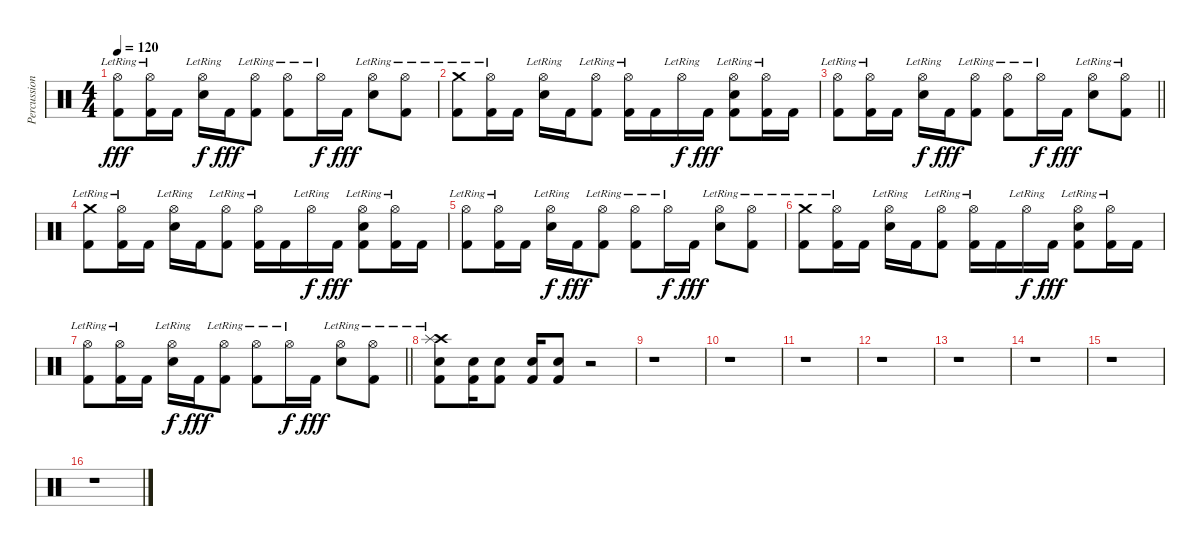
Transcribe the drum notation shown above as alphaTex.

\track ("Percussions" "Percussion") {instrument percussion}
\staff {score}
\articulation defaults
\ts (4 4)
\tempo 120
\clef neutral
\ks c
("Hi-Hat (open)"{lr} "Kick (hit) 2").8{dy fff} ("Hi-Hat (open)"{lr} "Kick (hit) 2").16 "Kick (hit) 2".16 ("Hi-Hat (open)"{lr} "Electric Snare (hit)").16{dy f} "Kick (hit) 2".16{dy fff} ("Hi-Hat (open)"{lr} "Kick (hit) 2").8 ("Hi-Hat (open)"{lr} "Kick (hit) 2").8 "Hi-Hat (open)"{lr}.16{dy f} "Kick (hit) 2".16{dy fff} ("Hi-Hat (open)"{lr} "Electric Snare (hit)").8 ("Hi-Hat (open)"{lr} "Kick (hit) 2").8 |
("Crash medium (hit)"{lr} "Kick (hit) 2").8 ("Hi-Hat (open)"{lr} "Kick (hit) 2").16 "Kick (hit) 2".16 ("Hi-Hat (open)"{lr} "Electric Snare (hit)").16 "Kick (hit) 2".16 ("Hi-Hat (open)"{lr} "Kick (hit) 2").8 ("Hi-Hat (open)"{lr} "Kick (hit) 2").16 "Kick (hit) 2".16 "Hi-Hat (open)"{lr}.16{dy f} "Kick (hit) 2".16{dy fff} ("Hi-Hat (open)"{lr} "Electric Snare (hit)" "Kick (hit) 2").8 ("Hi-Hat (open)"{lr} "Kick (hit) 2").16 "Kick (hit) 2".16 |
\barLineRight lightlight
("Hi-Hat (open)"{lr} "Kick (hit) 2").8 ("Hi-Hat (open)"{lr} "Kick (hit) 2").16 "Kick (hit) 2".16 ("Hi-Hat (open)"{lr} "Electric Snare (hit)").16{dy f} "Kick (hit) 2".16{dy fff} ("Hi-Hat (open)"{lr} "Kick (hit) 2").8 ("Hi-Hat (open)"{lr} "Kick (hit) 2").8 "Hi-Hat (open)"{lr}.16{dy f} "Kick (hit) 2".16{dy fff} ("Hi-Hat (open)"{lr} "Electric Snare (hit)").8 ("Hi-Hat (open)"{lr} "Kick (hit) 2").8 |
("Crash medium (hit)"{lr} "Kick (hit) 2").8 ("Hi-Hat (open)"{lr} "Kick (hit) 2").16 "Kick (hit) 2".16 ("Hi-Hat (open)"{lr} "Electric Snare (hit)").16 "Kick (hit) 2".16 ("Hi-Hat (open)"{lr} "Kick (hit) 2").8 ("Hi-Hat (open)"{lr} "Kick (hit) 2").16 "Kick (hit) 2".16 "Hi-Hat (open)"{lr}.16{dy f} "Kick (hit) 2".16{dy fff} ("Hi-Hat (open)"{lr} "Electric Snare (hit)" "Kick (hit) 2").8 ("Hi-Hat (open)"{lr} "Kick (hit) 2").16 "Kick (hit) 2".16 |
("Hi-Hat (open)"{lr} "Kick (hit) 2").8 ("Hi-Hat (open)"{lr} "Kick (hit) 2").16 "Kick (hit) 2".16 ("Hi-Hat (open)"{lr} "Electric Snare (hit)").16{dy f} "Kick (hit) 2".16{dy fff} ("Hi-Hat (open)"{lr} "Kick (hit) 2").8 ("Hi-Hat (open)"{lr} "Kick (hit) 2").8 "Hi-Hat (open)"{lr}.16{dy f} "Kick (hit) 2".16{dy fff} ("Hi-Hat (open)"{lr} "Electric Snare (hit)").8 ("Hi-Hat (open)"{lr} "Kick (hit) 2").8 |
("Crash medium (hit)"{lr} "Kick (hit) 2").8 ("Hi-Hat (open)"{lr} "Kick (hit) 2").16 "Kick (hit) 2".16 ("Hi-Hat (open)"{lr} "Electric Snare (hit)").16 "Kick (hit) 2".16 ("Hi-Hat (open)"{lr} "Kick (hit) 2").8 ("Hi-Hat (open)"{lr} "Kick (hit) 2").16 "Kick (hit) 2".16 "Hi-Hat (open)"{lr}.16{dy f} "Kick (hit) 2".16{dy fff} ("Hi-Hat (open)"{lr} "Electric Snare (hit)" "Kick (hit) 2").8 ("Hi-Hat (open)"{lr} "Kick (hit) 2").16 "Kick (hit) 2".16 |
\barLineRight lightlight
("Hi-Hat (open)"{lr} "Kick (hit) 2").8 ("Hi-Hat (open)"{lr} "Kick (hit) 2").16 "Kick (hit) 2".16 ("Hi-Hat (open)"{lr} "Electric Snare (hit)").16{dy f} "Kick (hit) 2".16{dy fff} ("Hi-Hat (open)"{lr} "Kick (hit) 2").8 ("Hi-Hat (open)"{lr} "Kick (hit) 2").8 "Hi-Hat (open)"{lr}.16{dy f} "Kick (hit) 2".16{dy fff} ("Hi-Hat (open)"{lr} "Electric Snare (hit)").8 ("Hi-Hat (open)"{lr} "Kick (hit) 2").8 |
("Crash high (hit)"{lr} "Splash (hit)"{lr} "Electric Snare (hit)" "Kick (hit) 2").8 ("Electric Snare (hit)" "Kick (hit) 2").16 ("Electric Snare (hit)" "Kick (hit) 2").8 ("Electric Snare (hit)" "Kick (hit) 2").16 ("Electric Snare (hit)" "Kick (hit) 2").8 r.2 |
r.1 |
r.1 |
r.1 |
r.1 |
r.1 |
r.1 |
r.1 |
r.1
